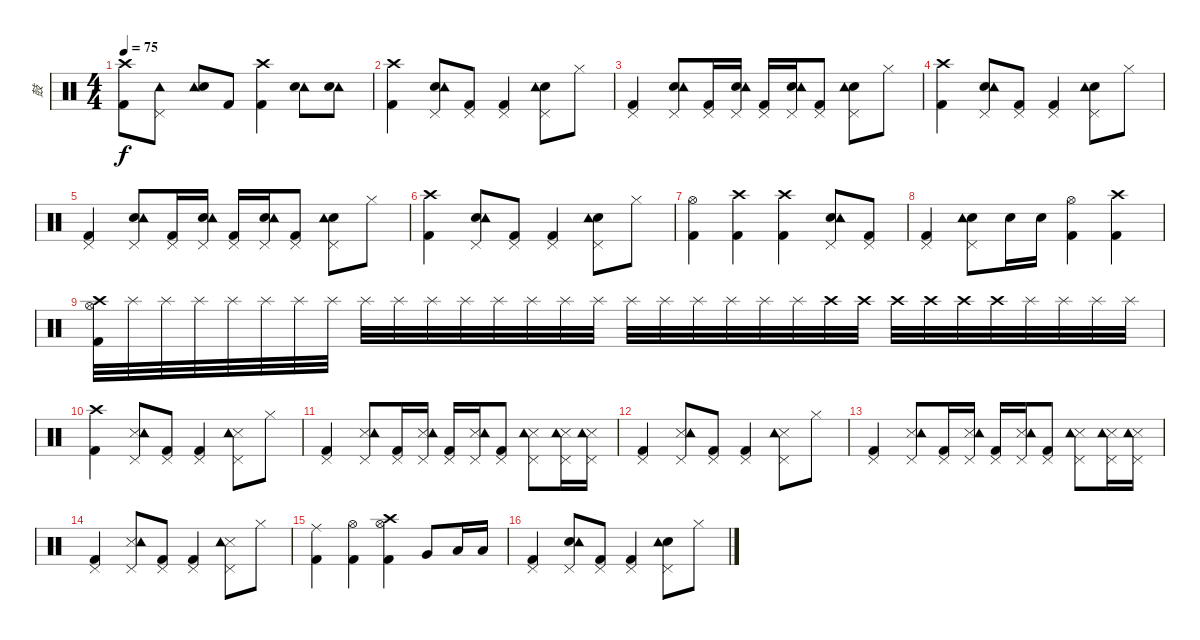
\track ("鼓" "鼓") {instrument percussion}
\staff {score}
\articulation defaults
\ts (4 4)
\tempo 75
\clef neutral
\ks c
("Kick (hit) 2" "Crash high (hit)").8{dy f} ("Tambourine (hit)" "Pedal Hi-Hat (hit)").8 ("Tambourine (hit)" "Snare (hit) 2").8 "Kick (hit) 2".8 ("Crash high (hit)" "Kick (hit) 2").4 ("Tambourine (hit)" "Snare (hit) 2").8 ("Tambourine (hit)" "Snare (hit) 2").8 |
("Kick (hit) 2" "Crash high (hit)").4 ("Snare (hit) 2" "Pedal Hi-Hat (hit)" "Tambourine (hit)").8 ("Kick (hit) 2" "Pedal Hi-Hat (hit)").8 ("Kick (hit) 2" "Pedal Hi-Hat (hit)").4 ("Snare (hit) 2" "Pedal Hi-Hat (hit)" "Tambourine (hit)").8 "Hi-Hat (closed)".8 |
("Kick (hit) 2" "Pedal Hi-Hat (hit)").4 ("Snare (hit) 2" "Pedal Hi-Hat (hit)" "Tambourine (hit)").8 ("Kick (hit) 2" "Pedal Hi-Hat (hit)").16 ("Snare (hit) 2" "Pedal Hi-Hat (hit)" "Tambourine (hit)").16 ("Kick (hit) 2" "Pedal Hi-Hat (hit)").16 ("Snare (hit) 2" "Pedal Hi-Hat (hit)" "Tambourine (hit)").16 ("Kick (hit) 2" "Pedal Hi-Hat (hit)").8 ("Snare (hit) 2" "Pedal Hi-Hat (hit)" "Tambourine (hit)").8 "Hi-Hat (closed)".8 |
("Kick (hit) 2" "Crash high (hit)").4 ("Snare (hit) 2" "Pedal Hi-Hat (hit)" "Tambourine (hit)").8 ("Kick (hit) 2" "Pedal Hi-Hat (hit)").8 ("Kick (hit) 2" "Pedal Hi-Hat (hit)").4 ("Snare (hit) 2" "Pedal Hi-Hat (hit)" "Tambourine (hit)").8 "Hi-Hat (closed)".8 |
("Kick (hit) 2" "Pedal Hi-Hat (hit)").4 ("Snare (hit) 2" "Pedal Hi-Hat (hit)" "Tambourine (hit)").8 ("Kick (hit) 2" "Pedal Hi-Hat (hit)").16 ("Snare (hit) 2" "Pedal Hi-Hat (hit)" "Tambourine (hit)").16 ("Kick (hit) 2" "Pedal Hi-Hat (hit)").16 ("Snare (hit) 2" "Pedal Hi-Hat (hit)" "Tambourine (hit)").16 ("Kick (hit) 2" "Pedal Hi-Hat (hit)").8 ("Snare (hit) 2" "Pedal Hi-Hat (hit)" "Tambourine (hit)").8 "Hi-Hat (closed)".8 |
("Kick (hit) 2" "Crash high (hit)").4 ("Snare (hit) 2" "Pedal Hi-Hat (hit)" "Tambourine (hit)").8 ("Kick (hit) 2" "Pedal Hi-Hat (hit)").8 ("Kick (hit) 2" "Pedal Hi-Hat (hit)").4 ("Snare (hit) 2" "Pedal Hi-Hat (hit)" "Tambourine (hit)").8 "Hi-Hat (closed)".8 |
("Hi-Hat (open)" "Kick (hit) 2").4 ("Crash high (hit)" "Kick (hit) 2").4 ("Crash high (hit)" "Kick (hit) 2").4 ("Snare (hit) 2" "Pedal Hi-Hat (hit)" "Tambourine (hit)").8 ("Kick (hit) 2" "Pedal Hi-Hat (hit)").8 |
("Kick (hit) 2" "Pedal Hi-Hat (hit)").4 ("Snare (hit) 2" "Pedal Hi-Hat (hit)" "Tambourine (hit)").8 "Snare (hit) 2".16 "Snare (hit) 2".16 ("Hi-Hat (open)" "Kick (hit) 2").4 ("Crash high (hit)" "Kick (hit) 2").4 |
("Crash high (hit)" "Kick (hit) 2" "Hi-Hat (open)").32 "Splash (hit)".32 "Splash (hit)".32 "Splash (hit)".32 "Splash (hit)".32 "Splash (hit)".32 "Splash (hit)".32 "Splash (hit)".32 "Splash (hit)".32 "Splash (hit)".32 "Splash (hit)".32 "Splash (hit)".32 "Splash (hit)".32 "Splash (hit)".32 "Splash (hit)".32 "Splash (hit)".32 "Splash (hit)".32 "Splash (hit)".32 "Splash (hit)".32 "Splash (hit)".32 "Splash (hit)".32 "Splash (hit)".32 "Crash high (hit)".32 "Crash high (hit)".32 "Crash high (hit)".32 "Crash high (hit)".32 "Crash high (hit)".32 "Crash high (hit)".32 "Splash (hit)".32 "Splash (hit)".32 "Splash (hit)".32 "Splash (hit)".32 |
("Crash high (hit)" "Kick (hit) 2").4 ("Snare (side stick) 3" "Pedal Hi-Hat (hit)" "Tambourine (hit)").8 ("Kick (hit) 2" "Pedal Hi-Hat (hit)").8 ("Kick (hit) 2" "Pedal Hi-Hat (hit)").4 ("Snare (side stick) 3" "Pedal Hi-Hat (hit)" "Tambourine (hit)").8 "Hi-Hat (closed)".8 |
("Kick (hit) 2" "Pedal Hi-Hat (hit)").4 ("Snare (side stick) 3" "Pedal Hi-Hat (hit)" "Tambourine (hit)").8 ("Kick (hit) 2" "Pedal Hi-Hat (hit)").16 ("Snare (side stick) 3" "Pedal Hi-Hat (hit)" "Tambourine (hit)").16 ("Kick (hit) 2" "Pedal Hi-Hat (hit)").16 ("Snare (side stick) 3" "Pedal Hi-Hat (hit)" "Tambourine (hit)").16 ("Kick (hit) 2" "Pedal Hi-Hat (hit)").8 ("Snare (side stick) 3" "Pedal Hi-Hat (hit)" "Tambourine (hit)").8 ("Snare (side stick) 3" "Pedal Hi-Hat (hit)" "Tambourine (hit)").16 ("Snare (side stick) 3" "Pedal Hi-Hat (hit)" "Tambourine (hit)").16 |
("Kick (hit) 2" "Pedal Hi-Hat (hit)").4 ("Snare (side stick) 3" "Pedal Hi-Hat (hit)" "Tambourine (hit)").8 ("Kick (hit) 2" "Pedal Hi-Hat (hit)").8 ("Kick (hit) 2" "Pedal Hi-Hat (hit)").4 ("Snare (side stick) 3" "Pedal Hi-Hat (hit)" "Tambourine (hit)").8 "Hi-Hat (closed)".8 |
("Kick (hit) 2" "Pedal Hi-Hat (hit)").4 ("Snare (side stick) 3" "Pedal Hi-Hat (hit)" "Tambourine (hit)").8 ("Kick (hit) 2" "Pedal Hi-Hat (hit)").16 ("Snare (side stick) 3" "Pedal Hi-Hat (hit)" "Tambourine (hit)").16 ("Kick (hit) 2" "Pedal Hi-Hat (hit)").16 ("Snare (side stick) 3" "Pedal Hi-Hat (hit)" "Tambourine (hit)").16 ("Kick (hit) 2" "Pedal Hi-Hat (hit)").8 ("Snare (side stick) 3" "Pedal Hi-Hat (hit)" "Tambourine (hit)").8 ("Snare (side stick) 3" "Pedal Hi-Hat (hit)" "Tambourine (hit)").16 ("Snare (side stick) 3" "Pedal Hi-Hat (hit)" "Tambourine (hit)").16 |
("Kick (hit) 2" "Pedal Hi-Hat (hit)").4 ("Snare (side stick) 3" "Pedal Hi-Hat (hit)" "Tambourine (hit)").8 ("Kick (hit) 2" "Pedal Hi-Hat (hit)").8 ("Kick (hit) 2" "Pedal Hi-Hat (hit)").4 ("Snare (side stick) 3" "Pedal Hi-Hat (hit)" "Tambourine (hit)").8 "Hi-Hat (closed)".8 |
("Kick (hit) 2" "Ride (middle)").4 ("Kick (hit) 2" "Hi-Hat (open)").4 ("Kick (hit) 2" "Crash high (hit)" "Hi-Hat (open)").4 "Very Low Tom (hit)".8 "Low Tom (hit)".16 "Low Tom (hit)".16 |
("Kick (hit) 2" "Pedal Hi-Hat (hit)").4 ("Snare (hit) 2" "Pedal Hi-Hat (hit)" "Tambourine (hit)").8 ("Kick (hit) 2" "Pedal Hi-Hat (hit)").8 ("Kick (hit) 2" "Pedal Hi-Hat (hit)").4 ("Snare (hit) 2" "Pedal Hi-Hat (hit)" "Tambourine (hit)").8 "Hi-Hat (closed)".8
